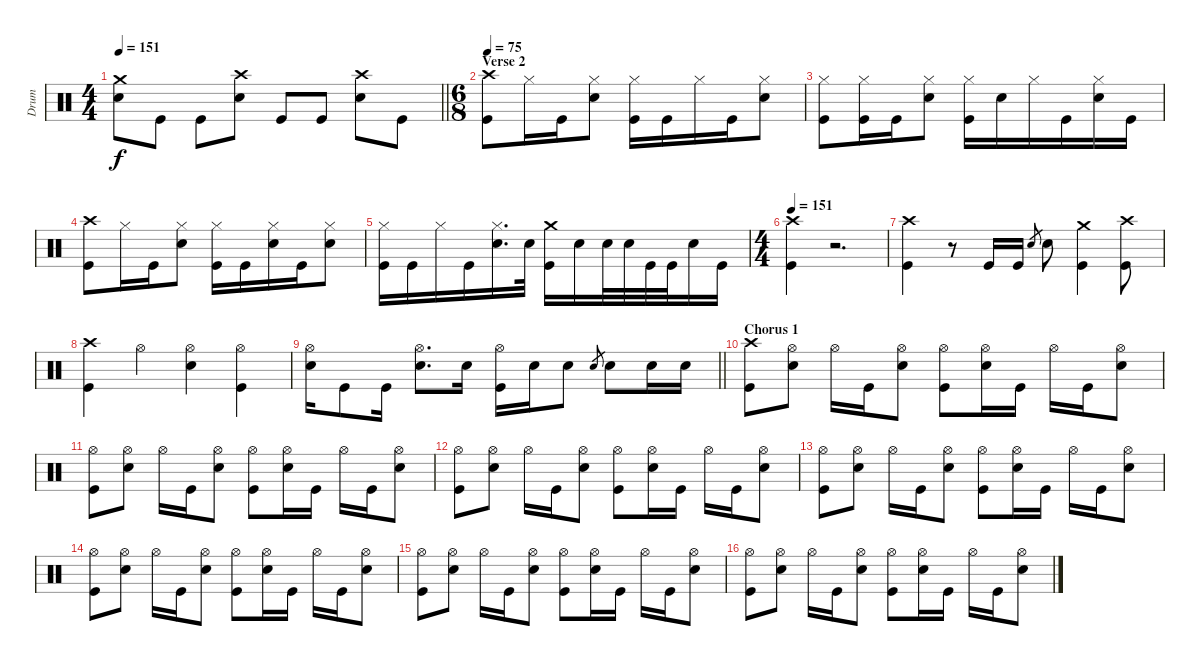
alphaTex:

\track ("Drum" "Drum") {instrument percussion}
\staff {score}
\articulation defaults
\ts (4 4)
\tempo 151
\clef neutral
\barLineRight lightlight
\ks c
("Crash medium (hit)" "Snare (hit) 2").8{dy f} "Kick (hit)".8 "Kick (hit)".8 ("Crash high (hit)" "Snare (hit) 2").8 "Kick (hit)".8 "Kick (hit)".8 ("Crash high (hit)" "Snare (hit) 2").8 "Kick (hit)".8 |
\ts (6 8)
\section ("" "Verse 2")
\tempo 75
("Crash high (hit)" "Kick (hit)").8 "Hi-Hat (closed)".16 "Kick (hit)".16 ("Hi-Hat (closed)" "Snare (hit) 2").8 ("Hi-Hat (closed)" "Kick (hit)").16 "Kick (hit)".16 "Hi-Hat (closed)".16 "Kick (hit)".16 ("Hi-Hat (closed)" "Snare (hit) 2").8 |
("Hi-Hat (closed)" "Kick (hit)").8 ("Hi-Hat (closed)" "Kick (hit)").16 "Kick (hit)".16 ("Hi-Hat (closed)" "Snare (hit) 2").8 ("Hi-Hat (closed)" "Kick (hit)").16 "Snare (hit) 2".16 "Hi-Hat (closed)".16 "Kick (hit)".16 ("Hi-Hat (closed)" "Snare (hit) 2").16 "Kick (hit)".16 |
("Crash high (hit)" "Kick (hit)").8 "Hi-Hat (closed)".16 "Kick (hit)".16 ("Hi-Hat (closed)" "Snare (hit) 2").8 ("Hi-Hat (closed)" "Kick (hit)").16 "Kick (hit)".16 ("Hi-Hat (closed)" "Snare (hit) 2").16 "Kick (hit)".16 ("Hi-Hat (closed)" "Snare (hit) 2").8 |
("Hi-Hat (closed)" "Kick (hit)").16 "Kick (hit)".16 "Hi-Hat (closed)".16 "Kick (hit)".16 ("Hi-Hat (closed)" "Snare (hit) 2").16{d} "Snare (hit) 2".32 ("Crash medium (hit)" "Kick (hit)").16 "Snare (hit) 2".16 "Snare (hit) 2".32 "Snare (hit) 2".32 "Kick (hit)".32 "Kick (hit)".32 "Snare (hit) 2".16 "Kick (hit)".16 |
\ts (4 4)
\tempo 151
("Crash high (hit)" "Kick (hit)").4 r.2{d} |
("Crash high (hit)" "Kick (hit)").4 r.8 "Kick (hit)".16 "Kick (hit)".16 "Snare (hit) 2".8{gr} "Snare (hit) 2".8 ("Crash medium (hit)" "Kick (hit)").4 ("Crash high (hit)" "Kick (hit)").8 |
("Crash high (hit)" "Kick (hit)").4 "Hi-Hat (open)".4 ("Hi-Hat (open)" "Snare (hit) 2").4 ("Hi-Hat (open)" "Kick (hit)").4 |
\barLineRight lightlight
("Hi-Hat (open)" "Snare (hit) 2").16 "Kick (hit)".8 "Kick (hit)".16 ("Hi-Hat (open)" "Snare (hit) 2").8{d} "Snare (hit) 2".16 ("Hi-Hat (open)" "Kick (hit)").16 "Snare (hit) 2".16 "Snare (hit) 2".8 "Snare (hit) 2".8{gr} "Snare (hit) 2".8 "Snare (hit) 2".16 "Snare (hit) 2".16 |
\section ("" "Chorus 1")
("Crash high (hit)" "Kick (hit)").8 ("Hi-Hat (open)" "Snare (hit) 2").8 "Hi-Hat (open)".16 "Kick (hit)".16 ("Hi-Hat (open)" "Snare (hit) 2").8 ("Hi-Hat (open)" "Kick (hit)").8 ("Hi-Hat (open)" "Snare (hit) 2").16 "Kick (hit)".16 "Hi-Hat (open)".16 "Kick (hit)".16 ("Hi-Hat (open)" "Snare (hit) 2").8 |
("Hi-Hat (open)" "Kick (hit)").8 ("Hi-Hat (open)" "Snare (hit) 2").8 "Hi-Hat (open)".16 "Kick (hit)".16 ("Hi-Hat (open)" "Snare (hit) 2").8 ("Hi-Hat (open)" "Kick (hit)").8 ("Hi-Hat (open)" "Snare (hit) 2").16 "Kick (hit)".16 "Hi-Hat (open)".16 "Kick (hit)".16 ("Hi-Hat (open)" "Snare (hit) 2").8 |
("Hi-Hat (open)" "Kick (hit)").8 ("Hi-Hat (open)" "Snare (hit) 2").8 "Hi-Hat (open)".16 "Kick (hit)".16 ("Hi-Hat (open)" "Snare (hit) 2").8 ("Hi-Hat (open)" "Kick (hit)").8 ("Hi-Hat (open)" "Snare (hit) 2").16 "Kick (hit)".16 "Hi-Hat (open)".16 "Kick (hit)".16 ("Hi-Hat (open)" "Snare (hit) 2").8 |
("Hi-Hat (open)" "Kick (hit)").8 ("Hi-Hat (open)" "Snare (hit) 2").8 "Hi-Hat (open)".16 "Kick (hit)".16 ("Hi-Hat (open)" "Snare (hit) 2").8 ("Hi-Hat (open)" "Kick (hit)").8 ("Hi-Hat (open)" "Snare (hit) 2").16 "Kick (hit)".16 "Hi-Hat (open)".16 "Kick (hit)".16 ("Hi-Hat (open)" "Snare (hit) 2").8 |
("Hi-Hat (open)" "Kick (hit)").8 ("Hi-Hat (open)" "Snare (hit) 2").8 "Hi-Hat (open)".16 "Kick (hit)".16 ("Hi-Hat (open)" "Snare (hit) 2").8 ("Hi-Hat (open)" "Kick (hit)").8 ("Hi-Hat (open)" "Snare (hit) 2").16 "Kick (hit)".16 "Hi-Hat (open)".16 "Kick (hit)".16 ("Hi-Hat (open)" "Snare (hit) 2").8 |
("Hi-Hat (open)" "Kick (hit)").8 ("Hi-Hat (open)" "Snare (hit) 2").8 "Hi-Hat (open)".16 "Kick (hit)".16 ("Hi-Hat (open)" "Snare (hit) 2").8 ("Hi-Hat (open)" "Kick (hit)").8 ("Hi-Hat (open)" "Snare (hit) 2").16 "Kick (hit)".16 "Hi-Hat (open)".16 "Kick (hit)".16 ("Hi-Hat (open)" "Snare (hit) 2").8 |
("Hi-Hat (open)" "Kick (hit)").8 ("Hi-Hat (open)" "Snare (hit) 2").8 "Hi-Hat (open)".16 "Kick (hit)".16 ("Hi-Hat (open)" "Snare (hit) 2").8 ("Hi-Hat (open)" "Kick (hit)").8 ("Hi-Hat (open)" "Snare (hit) 2").16 "Kick (hit)".16 "Hi-Hat (open)".16 "Kick (hit)".16 ("Hi-Hat (open)" "Snare (hit) 2").8
